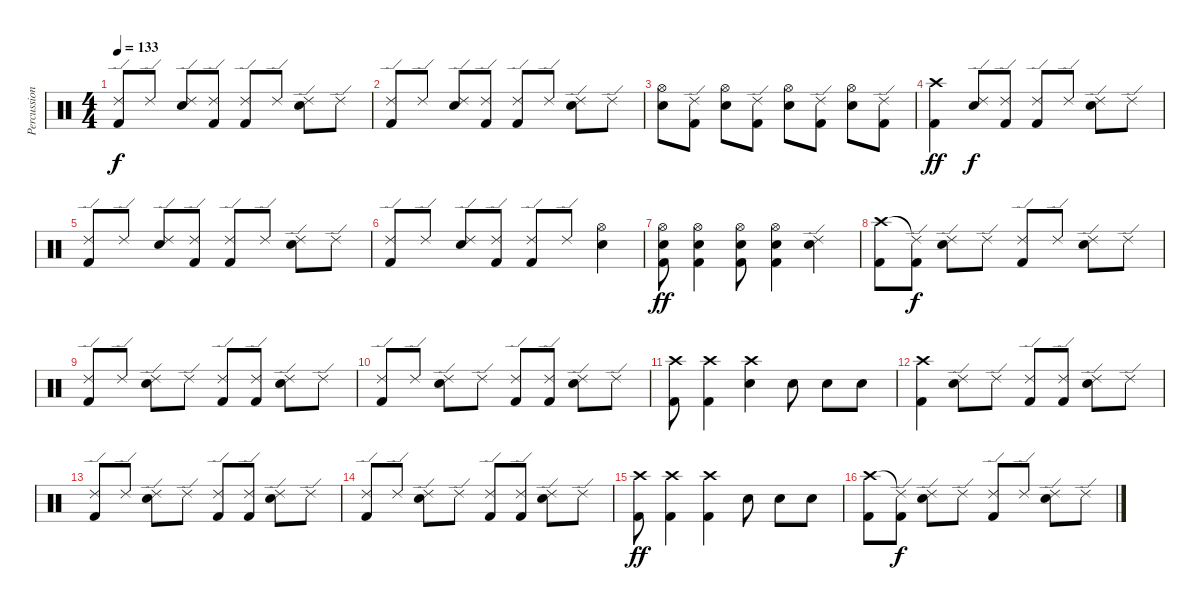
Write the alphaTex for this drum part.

\track ("Percussion" "Percussion") {instrument percussion}
\staff {score}
\articulation defaults
\ts (4 4)
\tempo 133
\clef neutral
\ks c
("Ride (edge) 2" "Kick (hit) 2").8{dy f} "Ride (edge) 2".8 ("Ride (edge) 2" "Snare (hit) 2").8 ("Ride (edge) 2" "Kick (hit) 2").8 ("Ride (edge) 2" "Kick (hit) 2").8 "Ride (edge) 2".8 ("Ride (edge) 2" "Snare (hit) 2").8 "Ride (edge) 2".8 |
("Ride (edge) 2" "Kick (hit) 2").8 "Ride (edge) 2".8 ("Ride (edge) 2" "Snare (hit) 2").8 ("Ride (edge) 2" "Kick (hit) 2").8 ("Ride (edge) 2" "Kick (hit) 2").8 "Ride (edge) 2".8 ("Ride (edge) 2" "Snare (hit) 2").8 "Ride (edge) 2".8 |
("Hi-Hat (open)" "Snare (hit) 2").8 ("Ride (edge) 2" "Kick (hit) 2").8 ("Hi-Hat (open)" "Snare (hit) 2").8 ("Ride (edge) 2" "Kick (hit) 2").8 ("Hi-Hat (open)" "Snare (hit) 2").8 ("Ride (edge) 2" "Kick (hit) 2").8 ("Hi-Hat (open)" "Snare (hit) 2").8 ("Ride (edge) 2" "Kick (hit) 2").8 |
("Crash high (hit)" "Kick (hit) 2").4{dy ff} ("Ride (edge) 2" "Snare (hit) 2").8{dy f} ("Ride (edge) 2" "Kick (hit) 2").8 ("Ride (edge) 2" "Kick (hit) 2").8 "Ride (edge) 2".8 ("Ride (edge) 2" "Snare (hit) 2").8 "Ride (edge) 2".8 |
("Ride (edge) 2" "Kick (hit) 2").8 "Ride (edge) 2".8 ("Ride (edge) 2" "Snare (hit) 2").8 ("Ride (edge) 2" "Kick (hit) 2").8 ("Ride (edge) 2" "Kick (hit) 2").8 "Ride (edge) 2".8 ("Ride (edge) 2" "Snare (hit) 2").8 "Ride (edge) 2".8 |
("Ride (edge) 2" "Kick (hit) 2").8 "Ride (edge) 2".8 ("Ride (edge) 2" "Snare (hit) 2").8 ("Ride (edge) 2" "Kick (hit) 2").8 ("Ride (edge) 2" "Kick (hit) 2").8 "Ride (edge) 2".8 ("Hi-Hat (open)" "Electric Snare (hit)").4 |
("Hi-Hat (open)" "Snare (hit) 2" "Kick (hit) 2").8{dy ff} ("Hi-Hat (open)" "Snare (hit) 2" "Kick (hit) 2").4 ("Hi-Hat (open)" "Snare (hit) 2" "Kick (hit) 2").8 ("Hi-Hat (open)" "Snare (hit) 2" "Kick (hit) 2").4 ("Ride (edge) 2" "Electric Snare (hit)").4 |
("Crash high (hit)" "Kick (hit) 2").8 ("Ride (edge) 2"{t} "Kick (hit) 2").8{dy f} ("Ride (edge) 2" "Snare (hit) 2").8 "Ride (edge) 2".8 ("Ride (edge) 2" "Kick (hit) 2").8 "Ride (edge) 2".8 ("Ride (edge) 2" "Snare (hit) 2").8 "Ride (edge) 2".8 |
("Ride (edge) 2" "Kick (hit) 2").8 "Ride (edge) 2".8 ("Ride (edge) 2" "Snare (hit) 2").8 "Ride (edge) 2".8 ("Ride (edge) 2" "Kick (hit) 2").8 ("Ride (edge) 2" "Kick (hit) 2").8 ("Ride (edge) 2" "Snare (hit) 2").8 "Ride (edge) 2".8 |
("Ride (edge) 2" "Kick (hit) 2").8 "Ride (edge) 2".8 ("Ride (edge) 2" "Snare (hit) 2").8 "Ride (edge) 2".8 ("Ride (edge) 2" "Kick (hit) 2").8 ("Ride (edge) 2" "Kick (hit) 2").8 ("Ride (edge) 2" "Snare (hit) 2").8 "Ride (edge) 2".8 |
("Crash high (hit)" "Kick (hit) 2").8 ("Crash high (hit)" "Kick (hit) 2").4 ("Crash high (hit)" "Snare (hit) 2").4 "Electric Snare (hit)".8 "Electric Snare (hit)".8 "Electric Snare (hit)".8 |
("Crash high (hit)" "Kick (hit) 2").4 ("Ride (edge) 2" "Snare (hit) 2").8 "Ride (edge) 2".8 ("Ride (edge) 2" "Kick (hit) 2").8 ("Ride (edge) 2" "Kick (hit) 2").8 ("Ride (edge) 2" "Snare (hit) 2").8 "Ride (edge) 2".8 |
("Ride (edge) 2" "Kick (hit) 2").8 "Ride (edge) 2".8 ("Ride (edge) 2" "Snare (hit) 2").8 "Ride (edge) 2".8 ("Ride (edge) 2" "Kick (hit) 2").8 ("Ride (edge) 2" "Kick (hit) 2").8 ("Ride (edge) 2" "Snare (hit) 2").8 "Ride (edge) 2".8 |
("Ride (edge) 2" "Kick (hit) 2").8 "Ride (edge) 2".8 ("Ride (edge) 2" "Snare (hit) 2").8 "Ride (edge) 2".8 ("Ride (edge) 2" "Kick (hit) 2").8 ("Ride (edge) 2" "Kick (hit) 2").8 ("Ride (edge) 2" "Snare (hit) 2").8 "Ride (edge) 2".8 |
("Crash high (hit)" "Kick (hit) 2").8{dy ff} ("Crash high (hit)" "Kick (hit) 2").4 ("Crash high (hit)" "Kick (hit) 2").4 "Snare (hit) 2".8 "Snare (hit) 2".8 "Snare (hit) 2".8 |
("Crash high (hit)" "Kick (hit) 2").8 ("Ride (edge) 2"{t} "Kick (hit) 2").8{dy f} ("Ride (edge) 2" "Snare (hit) 2").8 "Ride (edge) 2".8 ("Ride (edge) 2" "Kick (hit) 2").8 "Ride (edge) 2".8 ("Ride (edge) 2" "Snare (hit) 2").8 "Ride (edge) 2".8
